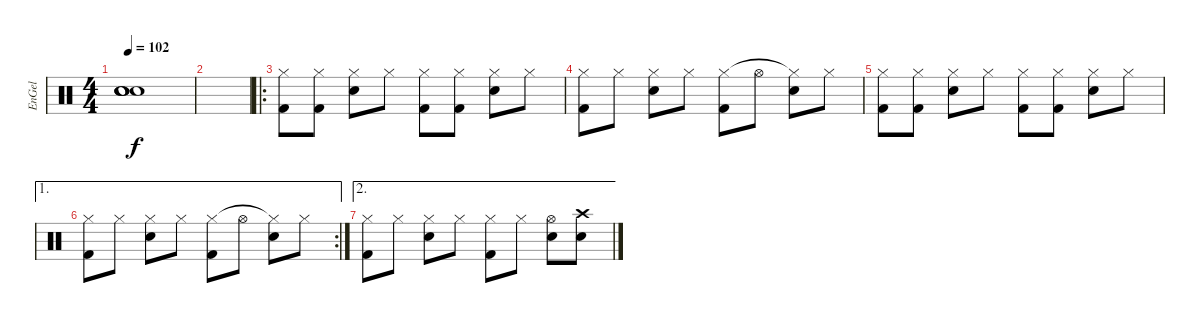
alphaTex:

\track ("EnGel" "EnGel") {instrument percussion}
\staff {score}
\articulation defaults
\ts (4 4)
\tempo 102
\clef neutral
\ks c
("Snare (hit)"{t} "Snare (hit)"{t} "Snare (hit)"{t} "Snare (hit)"{t}).1{dy f} |
|
\ro
("Kick (hit) 2" "Hi-Hat (closed)").8 ("Kick (hit) 2" "Hi-Hat (closed)").8 ("Snare (hit) 2" "Hi-Hat (closed)").8 "Hi-Hat (closed)".8 ("Kick (hit) 2" "Hi-Hat (closed)").8 ("Kick (hit) 2" "Hi-Hat (closed)").8 ("Snare (hit) 2" "Hi-Hat (closed)").8 "Hi-Hat (closed)".8 |
("Kick (hit) 2" "Hi-Hat (closed)").8 "Hi-Hat (closed)".8 ("Snare (hit) 2" "Hi-Hat (closed)").8 "Hi-Hat (closed)".8 ("Kick (hit) 2" "Hi-Hat (closed)").8 "Hi-Hat (open)".8 ("Snare (hit) 2" "Hi-Hat (closed)"{t}).8 "Hi-Hat (closed)".8 |
("Kick (hit) 2" "Hi-Hat (closed)").8 ("Kick (hit) 2" "Hi-Hat (closed)").8 ("Snare (hit) 2" "Hi-Hat (closed)").8 "Hi-Hat (closed)".8 ("Kick (hit) 2" "Hi-Hat (closed)").8 ("Kick (hit) 2" "Hi-Hat (closed)").8 ("Snare (hit) 2" "Hi-Hat (closed)").8 "Hi-Hat (closed)".8 |
\ae 1
\rc 2
("Kick (hit) 2" "Hi-Hat (closed)").8 "Hi-Hat (closed)".8 ("Snare (hit) 2" "Hi-Hat (closed)").8 "Hi-Hat (closed)".8 ("Kick (hit) 2" "Hi-Hat (closed)").8 "Hi-Hat (open)".8 ("Snare (hit) 2" "Hi-Hat (closed)"{t}).8 "Hi-Hat (closed)".8 |
\ae 2
("Kick (hit) 2" "Hi-Hat (closed)").8 "Hi-Hat (closed)".8 ("Snare (hit) 2" "Hi-Hat (closed)").8 "Hi-Hat (closed)".8 ("Kick (hit) 2" "Hi-Hat (closed)").8 "Hi-Hat (closed)".8 ("Snare (hit) 2" "Hi-Hat (open)").8 ("Snare (hit) 2" "Crash high (hit)").8
